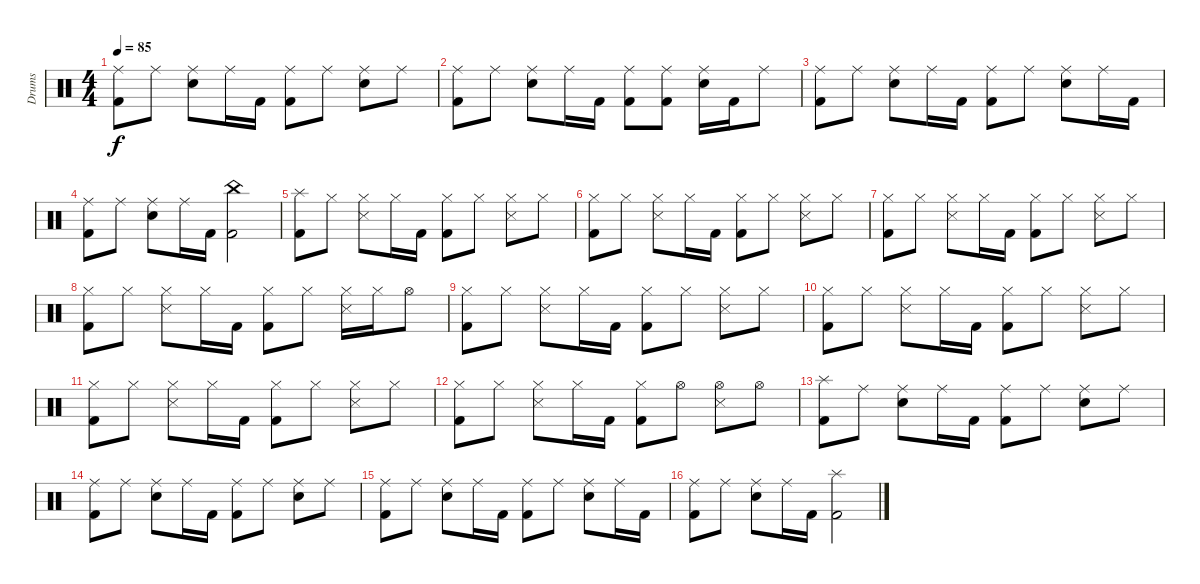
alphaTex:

\track ("Drums" "Drums") {instrument percussion}
\staff {score}
\articulation defaults
\ts (4 4)
\tempo 85
\clef neutral
\ks c
("Ride (middle)" "Kick (hit) 2").8{dy f} "Ride (middle)".8 ("Ride (middle)" "Snare (hit) 2").8 "Ride (middle)".16 "Kick (hit) 2".16 ("Ride (middle)" "Kick (hit) 2").8 "Ride (middle)".8 ("Ride (middle)" "Snare (hit) 2").8 "Ride (middle)".8 |
("Ride (middle)" "Kick (hit) 2").8 "Ride (middle)".8 ("Ride (middle)" "Snare (hit) 2").8 "Ride (middle)".16 "Kick (hit) 2".16 ("Ride (middle)" "Kick (hit) 2").8 ("Ride (middle)" "Kick (hit) 2").8 ("Ride (middle)" "Snare (hit) 2").16 "Kick (hit) 2".16 "Ride (middle)".8 |
("Ride (middle)" "Kick (hit) 2").8 "Ride (middle)".8 ("Ride (middle)" "Snare (hit) 2").8 "Ride (middle)".16 "Kick (hit) 2".16 ("Ride (middle)" "Kick (hit) 2").8 "Ride (middle)".8 ("Ride (middle)" "Snare (hit) 2").8 "Ride (middle)".16 "Kick (hit) 2".16 |
("Ride (middle)" "Kick (hit) 2").8 "Ride (middle)".8 ("Ride (middle)" "Snare (hit) 2").8 "Ride (middle)".16 "Kick (hit) 2".16 ("China (hit)" "Kick (hit) 2").2 |
("Splash (hit)" "Kick (hit) 2").8 "Hi-Hat (closed)".8 ("Hi-Hat (closed)" "Snare (side stick) 3").8 "Hi-Hat (closed)".16 "Kick (hit) 2".16 ("Hi-Hat (closed)" "Kick (hit) 2").8 "Hi-Hat (closed)".8 ("Hi-Hat (closed)" "Snare (side stick) 3").8 "Hi-Hat (closed)".8 |
("Hi-Hat (closed)" "Kick (hit) 2").8 "Hi-Hat (closed)".8 ("Hi-Hat (closed)" "Snare (side stick) 3").8 "Hi-Hat (closed)".16 "Kick (hit) 2".16 ("Hi-Hat (closed)" "Kick (hit) 2").8 "Hi-Hat (closed)".8 ("Hi-Hat (closed)" "Snare (side stick) 3").8 "Hi-Hat (closed)".8 |
("Hi-Hat (closed)" "Kick (hit) 2").8 "Hi-Hat (closed)".8 ("Hi-Hat (closed)" "Snare (side stick) 3").8 "Hi-Hat (closed)".16 "Kick (hit) 2".16 ("Hi-Hat (closed)" "Kick (hit) 2").8 "Hi-Hat (closed)".8 ("Hi-Hat (closed)" "Snare (side stick) 3").8 "Hi-Hat (closed)".8 |
("Hi-Hat (closed)" "Kick (hit) 2").8 "Hi-Hat (closed)".8 ("Hi-Hat (closed)" "Snare (side stick) 3").8 "Hi-Hat (closed)".16 "Kick (hit) 2".16 ("Hi-Hat (closed)" "Kick (hit) 2").8 "Hi-Hat (closed)".8 ("Hi-Hat (closed)" "Snare (side stick) 3").16 "Hi-Hat (closed)".16 "Hi-Hat (open)".8 |
("Hi-Hat (closed)" "Kick (hit) 2").8 "Hi-Hat (closed)".8 ("Hi-Hat (closed)" "Snare (side stick) 3").8 "Hi-Hat (closed)".16 "Kick (hit) 2".16 ("Hi-Hat (closed)" "Kick (hit) 2").8 "Hi-Hat (closed)".8 ("Hi-Hat (closed)" "Snare (side stick) 3").8 "Hi-Hat (closed)".8 |
("Hi-Hat (closed)" "Kick (hit) 2").8 "Hi-Hat (closed)".8 ("Hi-Hat (closed)" "Snare (side stick) 3").8 "Hi-Hat (closed)".16 "Kick (hit) 2".16 ("Hi-Hat (closed)" "Kick (hit) 2").8 "Hi-Hat (closed)".8 ("Hi-Hat (closed)" "Snare (side stick) 3").8 "Hi-Hat (closed)".8 |
("Hi-Hat (closed)" "Kick (hit) 2").8 "Hi-Hat (closed)".8 ("Hi-Hat (closed)" "Snare (side stick) 3").8 "Hi-Hat (closed)".16 "Kick (hit) 2".16 ("Hi-Hat (closed)" "Kick (hit) 2").8 "Hi-Hat (closed)".8 ("Hi-Hat (closed)" "Snare (side stick) 3").8 "Hi-Hat (closed)".8 |
("Hi-Hat (closed)" "Kick (hit) 2").8 "Hi-Hat (closed)".8 ("Hi-Hat (closed)" "Snare (side stick) 3").8 "Hi-Hat (closed)".16 "Kick (hit) 2".16 ("Hi-Hat (closed)" "Kick (hit) 2").8 "Hi-Hat (open)".8 ("Hi-Hat (open)" "Snare (side stick) 3").8 "Hi-Hat (open)".8 |
("Splash (hit)" "Kick (hit) 2").8 "Ride (middle)".8 ("Ride (middle)" "Snare (hit) 2").8 "Ride (middle)".16 "Kick (hit) 2".16 ("Ride (middle)" "Kick (hit) 2").8 "Ride (middle)".8 ("Ride (middle)" "Snare (hit) 2").8 "Ride (middle)".8 |
("Ride (middle)" "Kick (hit) 2").8 "Ride (middle)".8 ("Ride (middle)" "Snare (hit) 2").8 "Ride (middle)".16 "Kick (hit) 2".16 ("Ride (middle)" "Kick (hit) 2").8 "Ride (middle)".8 ("Ride (middle)" "Snare (hit) 2").8 "Ride (middle)".8 |
("Ride (middle)" "Kick (hit) 2").8 "Ride (middle)".8 ("Ride (middle)" "Snare (hit) 2").8 "Ride (middle)".16 "Kick (hit) 2".16 ("Ride (middle)" "Kick (hit) 2").8 "Ride (middle)".8 ("Ride (middle)" "Snare (hit) 2").8 "Ride (middle)".16 "Kick (hit) 2".16 |
("Ride (middle)" "Kick (hit) 2").8 "Ride (middle)".8 ("Ride (middle)" "Snare (hit) 2").8 "Ride (middle)".16 "Kick (hit) 2".16 ("Splash (hit)" "Kick (hit) 2").2
